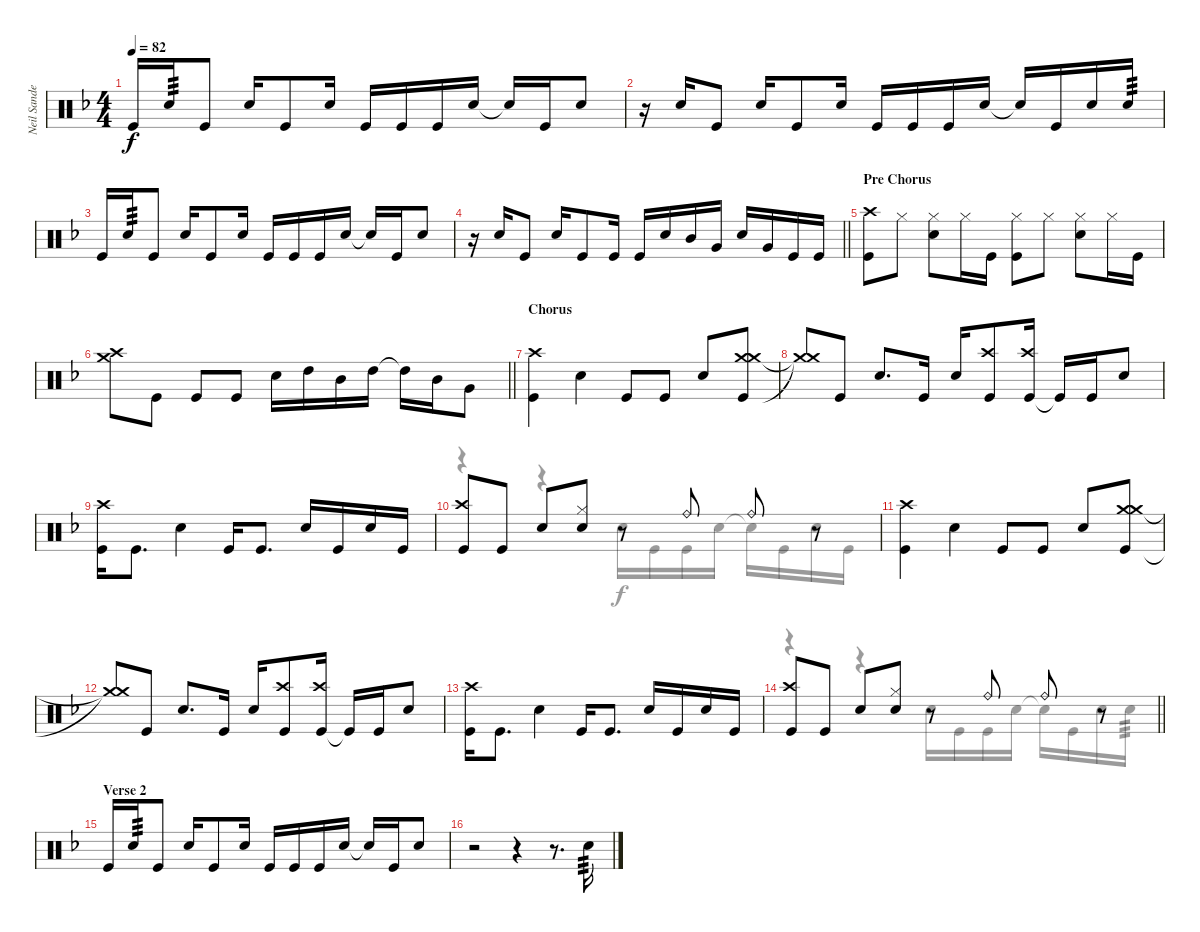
\track ("Neil Sanderson" "Neil Sande") {instrument percussion}
\staff {score}
\articulation defaults
\voice
\ts (4 4)
\tempo 82
\clef neutral
\ks f "Kick (hit)".16{dy f} "Snare (hit) 2".16{tp 3} "Kick (hit)".8 "Snare (hit) 2".16 "Kick (hit)".8 "Snare (hit) 2".16 "Kick (hit)".16 "Kick (hit)".16 "Kick (hit)".16 "Snare (hit) 2".16 "Snare (hit) 2"{t}.16 "Kick (hit)".16 "Snare (hit) 2".8
|
r.16 "Snare (hit) 2".16 "Kick (hit)".8 "Snare (hit) 2".16 "Kick (hit)".8 "Snare (hit) 2".16 "Kick (hit)".16 "Kick (hit)".16 "Kick (hit)".16 "Snare (hit) 2".16 "Snare (hit) 2"{t}.16 "Kick (hit)".16 "Snare (hit) 2".16 "Snare (hit) 2".16{tp 3} |
"Kick (hit)".16 "Snare (hit) 2".16{tp 3} "Kick (hit)".8 "Snare (hit) 2".16 "Kick (hit)".8 "Snare (hit) 2".16 "Kick (hit)".16 "Kick (hit)".16 "Kick (hit)".16 "Snare (hit) 2".16 "Snare (hit) 2"{t}.16 "Kick (hit)".16 "Snare (hit) 2".8 |
\barLineRight lightlight
r.16 "Snare (hit) 2".16 "Kick (hit)".8 "Snare (hit) 2".16 "Kick (hit)".8 "Kick (hit)".16 "Kick (hit)".16{beam Up} "Snare (hit) 2".16{beam Up} "Mid Tom (hit)".16{beam Up} "Very Low Tom (hit)".16{beam Up} "Snare (hit) 2".16 "Very Low Tom (hit)".16 "Kick (hit)".16 "Kick (hit)".16 |
\section ("" "Pre Chorus")
("Crash high (hit)" "Kick (hit)").8 "Hi-Hat (closed)".8 ("Snare (hit) 2" "Hi-Hat (closed)").8 "Hi-Hat (closed)".16 "Kick (hit)".16 ("Kick (hit)" "Hi-Hat (closed)").8 "Hi-Hat (closed)".8 ("Snare (hit) 2" "Hi-Hat (closed)").8 "Hi-Hat (closed)".16 "Kick (hit)".16 |
\barLineRight lightlight
("Crash high (hit)" "Crash medium (hit)").8 "Kick (hit)".8 "Kick (hit)".8 "Kick (hit)".8 "Snare (hit) 2".16 "High Tom (hit)".16 "Mid Tom (hit)".16 "High Tom (hit)".16 "High Tom (hit)"{t}.16 "Mid Tom (hit)".16 "Very Low Tom (hit)".8 |
\section ("" "Chorus")
("Crash high (hit)" "Kick (hit)").4 "Snare (hit) 2".4 "Kick (hit)".8 "Kick (hit)".8 "Snare (hit) 2".8{beam Up} ("Kick (hit)" "Crash medium (hit)" "Crash medium (hit)").8{beam Up} |
("Crash medium (hit)"{t} "Crash medium (hit)"{t}).8{beam Up} "Kick (hit)".8{beam Up} "Snare (hit) 2".8{d} "Kick (hit)".16 "Snare (hit) 2".16{beam Up} ("Kick (hit)" "Crash high (hit)").8{beam Up} ("Kick (hit)" "Crash high (hit)").16{beam Up} "Kick (hit)"{t}.16 "Kick (hit)".16 "Snare (hit) 2".8 |
("Kick (hit)" "Crash high (hit)").16 "Kick (hit)".8{d} "Snare (hit) 2".4 "Kick (hit)".16 "Kick (hit)".8{d} "Snare (hit) 2".16 "Kick (hit)".16 "Snare (hit) 2".16 "Kick (hit)".16 |
("Crash high (hit)" "Kick (hit)").8 "Kick (hit)".8 "Snare (hit) 2".8 ("Snare (hit) 2" "Hi-Hat (closed)").8 r.8 "Ride (bell)".8{beam Up} "Ride (bell)".8{beam Up} r.8 |
("Crash high (hit)" "Kick (hit)").4 "Snare (hit) 2".4 "Kick (hit)".8 "Kick (hit)".8 "Snare (hit) 2".8{beam Up} ("Kick (hit)" "Crash medium (hit)" "Crash medium (hit)").8{beam Up} |
("Crash medium (hit)"{t} "Crash medium (hit)"{t}).8{beam Up} "Kick (hit)".8{beam Up} "Snare (hit) 2".8{d} "Kick (hit)".16 "Snare (hit) 2".16{beam Up} ("Kick (hit)" "Crash high (hit)").8{beam Up} ("Kick (hit)" "Crash high (hit)").16{beam Up} "Kick (hit)"{t}.16 "Kick (hit)".16 "Snare (hit) 2".8 |
("Kick (hit)" "Crash high (hit)").16 "Kick (hit)".8{d} "Snare (hit) 2".4 "Kick (hit)".16 "Kick (hit)".8{d} "Snare (hit) 2".16 "Kick (hit)".16 "Snare (hit) 2".16 "Kick (hit)".16 |
\barLineRight lightlight
("Crash high (hit)" "Kick (hit)").8 "Kick (hit)".8 "Snare (hit) 2".8 ("Snare (hit) 2" "Hi-Hat (closed)").8 r.8 "Ride (bell)".8{beam Up} "Ride (bell)".8{beam Up} r.8 |
\section ("" "Verse 2")
"Kick (hit)".16 "Snare (hit) 2".16{tp 3} "Kick (hit)".8 "Snare (hit) 2".16 "Kick (hit)".8 "Snare (hit) 2".16 "Kick (hit)".16 "Kick (hit)".16 "Kick (hit)".16 "Snare (hit) 2".16 "Snare (hit) 2"{t}.16 "Kick (hit)".16 "Snare (hit) 2".8 |
r.2 r.4 r.8{d} "Snare (hit) 2".16{tp 3}
\voice
\clef neutral
\ottava regular
\simile none
\ks f
|
|
|
\barLineRight lightlight
|
|
\barLineRight lightlight
|
|
|
|
r.4 r.4 "Snare (hit) 2".16{beam Down} "Kick (hit)".16{beam Down} "Kick (hit)".16{beam Down} "Snare (hit) 2".16{beam Down} "Snare (hit) 2"{t}.16{beam Down} "Kick (hit)".16{beam Down} "Snare (hit) 2".16{beam Down} "Kick (hit)".16{beam Down} |
|
|
|
\barLineRight lightlight
r.4 r.4 "Snare (hit) 2".16{beam Down} "Kick (hit)".16{beam Down} "Kick (hit)".16{beam Down} "Snare (hit) 2".16{beam Down} "Snare (hit) 2"{t}.16{beam Down} "Kick (hit)".16{beam Down} "Snare (hit) 2".16{beam Down} "Snare (hit) 2".16{tp 3 beam Down} |
|
